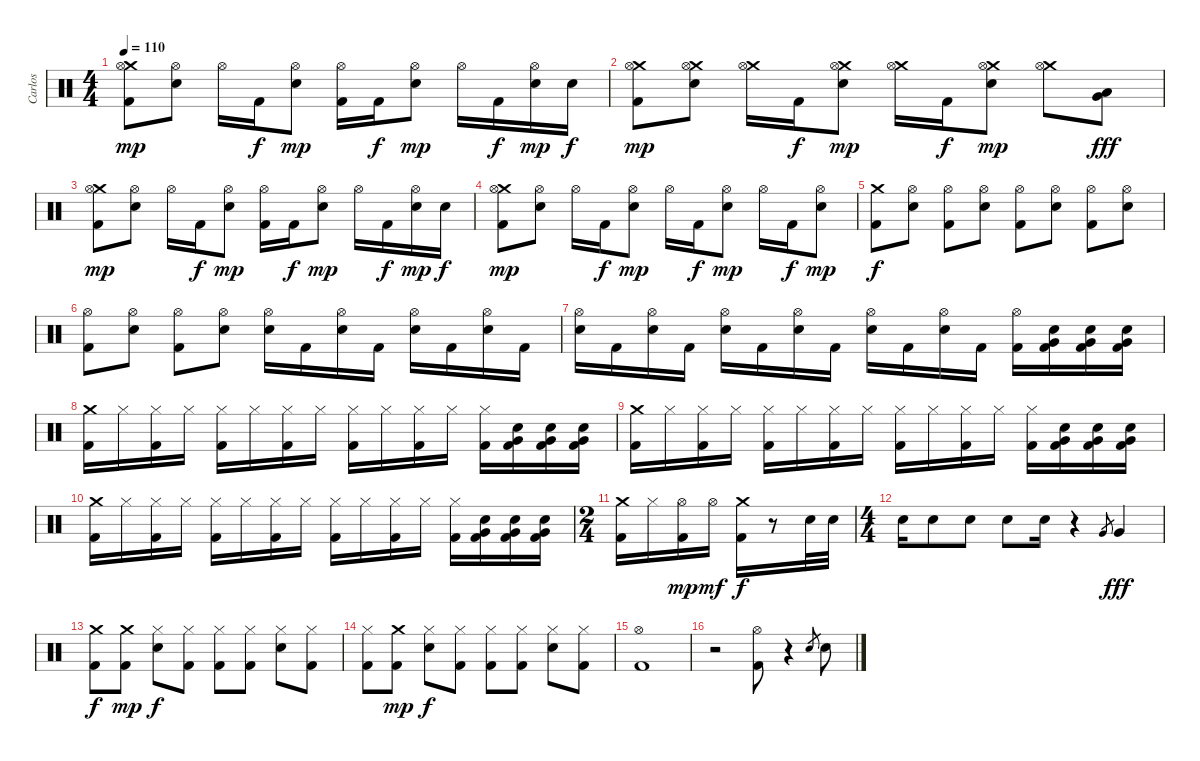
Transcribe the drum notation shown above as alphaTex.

\track ("Carlos" "Carlos") {instrument percussion}
\staff {score}
\articulation defaults
\ts (4 4)
\tempo 110
\clef neutral
\ks c
("Crash medium (hit)" "Hi-Hat (open)" "Kick (hit) 2").8{dy mp} ("Hi-Hat (open)" "Electric Snare (hit)").8 "Hi-Hat (open)".16 "Kick (hit) 2".16{dy f} ("Hi-Hat (open)" "Electric Snare (hit)").8{dy mp} ("Hi-Hat (open)" "Kick (hit) 2").16 "Kick (hit) 2".16{dy f} ("Hi-Hat (open)" "Electric Snare (hit)").8{dy mp} "Hi-Hat (open)".16 "Kick (hit) 2".16{dy f} ("Hi-Hat (open)" "Electric Snare (hit)").16{dy mp} "Electric Snare (hit)".16{dy f} |
("Crash medium (hit)" "Hi-Hat (open)" "Kick (hit) 2").8{dy mp} ("Crash medium (hit)" "Hi-Hat (open)" "Electric Snare (hit)").8 ("Crash medium (hit)" "Hi-Hat (open)").16 "Kick (hit) 2".16{dy f} ("Crash medium (hit)" "Hi-Hat (open)" "Electric Snare (hit)").8{dy mp} ("Crash medium (hit)" "Hi-Hat (open)").16 "Kick (hit) 2".16{dy f} ("Crash medium (hit)" "Hi-Hat (open)" "Electric Snare (hit)").8{dy mp} ("Crash medium (hit)" "Hi-Hat (open)").8 ("Low Tom (hit)" "Very Low Tom (hit)").8{dy fff} |
("Crash medium (hit)" "Hi-Hat (open)" "Kick (hit) 2").8{dy mp} ("Hi-Hat (open)" "Electric Snare (hit)").8 "Hi-Hat (open)".16 "Kick (hit) 2".16{dy f} ("Hi-Hat (open)" "Electric Snare (hit)").8{dy mp} ("Hi-Hat (open)" "Kick (hit) 2").16 "Kick (hit) 2".16{dy f} ("Hi-Hat (open)" "Electric Snare (hit)").8{dy mp} "Hi-Hat (open)".16 "Kick (hit) 2".16{dy f} ("Hi-Hat (open)" "Electric Snare (hit)").16{dy mp} "Electric Snare (hit)".16{dy f} |
("Crash medium (hit)" "Hi-Hat (open)" "Kick (hit) 2").8{dy mp} ("Hi-Hat (open)" "Electric Snare (hit)").8 "Hi-Hat (open)".16 "Kick (hit) 2".16{dy f} ("Hi-Hat (open)" "Electric Snare (hit)").8{dy mp} "Hi-Hat (open)".16 "Kick (hit) 2".16{dy f} ("Hi-Hat (open)" "Electric Snare (hit)").8{dy mp} "Hi-Hat (open)".16 "Kick (hit) 2".16{dy f} ("Hi-Hat (open)" "Electric Snare (hit)").8{dy mp} |
("Crash medium (hit)" "Kick (hit) 2").8{dy f} ("Hi-Hat (open)" "Electric Snare (hit)").8 ("Hi-Hat (open)" "Kick (hit) 2").8 ("Hi-Hat (open)" "Electric Snare (hit)").8 ("Hi-Hat (open)" "Kick (hit) 2").8 ("Hi-Hat (open)" "Electric Snare (hit)").8 ("Hi-Hat (open)" "Kick (hit) 2").8 ("Hi-Hat (open)" "Electric Snare (hit)").8 |
("Hi-Hat (open)" "Kick (hit) 2").8 ("Hi-Hat (open)" "Electric Snare (hit)").8 ("Hi-Hat (open)" "Kick (hit) 2").8 ("Hi-Hat (open)" "Electric Snare (hit)").8 ("Hi-Hat (open)" "Electric Snare (hit)").16 "Kick (hit) 2".16 ("Hi-Hat (open)" "Electric Snare (hit)").16 "Kick (hit) 2".16 ("Hi-Hat (open)" "Electric Snare (hit)").16 "Kick (hit) 2".16 ("Hi-Hat (open)" "Electric Snare (hit)").16 "Kick (hit) 2".16 |
("Hi-Hat (open)" "Electric Snare (hit)").16 "Kick (hit) 2".16 ("Hi-Hat (open)" "Electric Snare (hit)").16 "Kick (hit) 2".16 ("Hi-Hat (open)" "Electric Snare (hit)").16 "Kick (hit) 2".16 ("Hi-Hat (open)" "Electric Snare (hit)").16 "Kick (hit) 2".16 ("Hi-Hat (open)" "Electric Snare (hit)").16 "Kick (hit) 2".16 ("Hi-Hat (open)" "Electric Snare (hit)").16 "Kick (hit) 2".16 ("Hi-Hat (open)" "Kick (hit) 2").16 ("Electric Snare (hit)" "Very Low Tom (hit)" "Kick (hit) 2").16 ("Electric Snare (hit)" "Very Low Tom (hit)" "Kick (hit) 2").16 ("Electric Snare (hit)" "Very Low Tom (hit)" "Kick (hit) 2").16 |
("Crash medium (hit)" "Kick (hit) 2").16 "Hi-Hat (closed)".16 ("Hi-Hat (closed)" "Kick (hit) 2").16 "Hi-Hat (closed)".16 ("Hi-Hat (closed)" "Kick (hit) 2").16 "Hi-Hat (closed)".16 ("Hi-Hat (closed)" "Kick (hit) 2").16 "Hi-Hat (closed)".16 ("Hi-Hat (closed)" "Kick (hit) 2").16 "Hi-Hat (closed)".16 ("Hi-Hat (closed)" "Kick (hit) 2").16 "Hi-Hat (closed)".16 ("Hi-Hat (closed)" "Kick (hit) 2").16 ("Electric Snare (hit)" "Very Low Tom (hit)" "Kick (hit) 2").16 ("Electric Snare (hit)" "Very Low Tom (hit)" "Kick (hit) 2").16 ("Electric Snare (hit)" "Very Low Tom (hit)" "Kick (hit) 2").16 |
("Crash medium (hit)" "Kick (hit) 2").16 "Hi-Hat (closed)".16 ("Hi-Hat (closed)" "Kick (hit) 2").16 "Hi-Hat (closed)".16 ("Hi-Hat (closed)" "Kick (hit) 2").16 "Hi-Hat (closed)".16 ("Hi-Hat (closed)" "Kick (hit) 2").16 "Hi-Hat (closed)".16 ("Hi-Hat (closed)" "Kick (hit) 2").16 "Hi-Hat (closed)".16 ("Hi-Hat (closed)" "Kick (hit) 2").16 "Hi-Hat (closed)".16 ("Hi-Hat (closed)" "Kick (hit) 2").16 ("Electric Snare (hit)" "Very Low Tom (hit)" "Kick (hit) 2").16 ("Electric Snare (hit)" "Very Low Tom (hit)" "Kick (hit) 2").16 ("Electric Snare (hit)" "Very Low Tom (hit)" "Kick (hit) 2").16 |
("Crash medium (hit)" "Kick (hit) 2").16 "Hi-Hat (closed)".16 ("Hi-Hat (closed)" "Kick (hit) 2").16 "Hi-Hat (closed)".16 ("Hi-Hat (closed)" "Kick (hit) 2").16 "Hi-Hat (closed)".16 ("Hi-Hat (closed)" "Kick (hit) 2").16 "Hi-Hat (closed)".16 ("Hi-Hat (closed)" "Kick (hit) 2").16 "Hi-Hat (closed)".16 ("Hi-Hat (closed)" "Kick (hit) 2").16 "Hi-Hat (closed)".16 ("Hi-Hat (closed)" "Kick (hit) 2").16 ("Electric Snare (hit)" "Very Low Tom (hit)" "Kick (hit) 2").16 ("Electric Snare (hit)" "Very Low Tom (hit)" "Kick (hit) 2").16 ("Electric Snare (hit)" "Very Low Tom (hit)" "Kick (hit) 2").16 |
\ts (2 4)
("Crash medium (hit)" "Kick (hit) 2").16 "Hi-Hat (closed)".16 ("Hi-Hat (open)" "Kick (hit) 2").16{dy mp} "Hi-Hat (open)".16{dy mf} ("Crash medium (hit)" "Kick (hit) 2").16{dy f} r.8 "Electric Snare (hit)".32 "Electric Snare (hit)".32 |
\ts (4 4)
"Electric Snare (hit)".16 "Electric Snare (hit)".8 "Electric Snare (hit)".8 "Electric Snare (hit)".8 "Electric Snare (hit)".16 r.4 "Very Low Tom (hit)".8{gr} "Very Low Tom (hit)".4{dy fff} |
("Crash medium (hit)" "Kick (hit) 2").8{dy f} ("Crash medium (hit)" "Kick (hit) 2").8{dy mp} ("Hi-Hat (closed)" "Electric Snare (hit)").8{dy f} ("Hi-Hat (closed)" "Kick (hit) 2").8 ("Hi-Hat (closed)" "Kick (hit) 2").8 ("Hi-Hat (closed)" "Kick (hit) 2").8 ("Hi-Hat (closed)" "Electric Snare (hit)").8 ("Hi-Hat (closed)" "Kick (hit) 2").8 |
("Hi-Hat (closed)" "Kick (hit) 2").8 ("Crash medium (hit)" "Kick (hit) 2").8{dy mp} ("Hi-Hat (closed)" "Electric Snare (hit)").8{dy f} ("Hi-Hat (closed)" "Kick (hit) 2").8 ("Hi-Hat (closed)" "Kick (hit) 2").8 ("Hi-Hat (closed)" "Kick (hit) 2").8 ("Hi-Hat (closed)" "Electric Snare (hit)").8 ("Hi-Hat (closed)" "Kick (hit) 2").8 |
("Hi-Hat (open)" "Kick (hit) 2").1 |
r.2 ("Hi-Hat (open)" "Kick (hit) 2").8 r.4 "Electric Snare (hit)".8{gr} "Electric Snare (hit)".8
